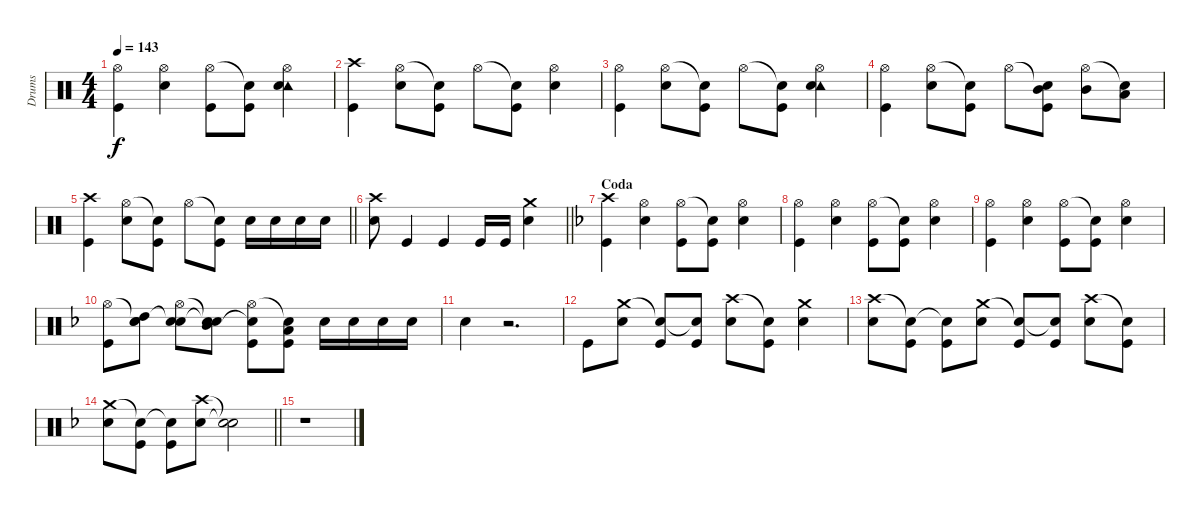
\track ("Drums" "Drums") {instrument percussion}
\staff {score}
\articulation defaults
\ts (4 4)
\tempo 143
\clef neutral
\ks c
("Hi-Hat (open)" "Kick (hit)").4{dy f} ("Hi-Hat (open)" "Electric Snare (hit)").4 ("Hi-Hat (open)" "Kick (hit)").8 ("Snare (hit)"{t} "Kick (hit)").8 ("Tambourine (hit)" "Hi-Hat (open)" "Electric Snare (hit)").4 |
("Crash high (hit)" "Kick (hit)").4 ("Hi-Hat (open)" "Electric Snare (hit)").8 ("Snare (hit)"{t} "Kick (hit)").8 "Hi-Hat (open)".8 ("Snare (hit)"{t} "Kick (hit)").8 ("Hi-Hat (open)" "Electric Snare (hit)").4 |
("Hi-Hat (open)" "Kick (hit)").4 ("Hi-Hat (open)" "Electric Snare (hit)").8 ("Snare (hit)"{t} "Kick (hit)").8 "Hi-Hat (open)".8 ("Snare (hit)"{t} "Kick (hit)").8 ("Tambourine (hit)" "Hi-Hat (open)" "Electric Snare (hit)").4 |
("Hi-Hat (open)" "Kick (hit)").4 ("Hi-Hat (open)" "Electric Snare (hit)").8 ("Snare (hit)"{t} "Kick (hit)").8 "Hi-Hat (open)".8 ("Snare (hit)"{t} "Mid Tom (hit)" "Kick (hit)").8 ("Hi-Hat (open)" "Mid Tom (hit)").8 ("Snare (hit)"{t} "Low Tom (hit)").8 |
\barLineRight lightlight
("Crash high (hit)" "Kick (hit)").4 ("Hi-Hat (open)" "Electric Snare (hit)").8 ("Snare (hit)"{t} "Kick (hit)").8 "Hi-Hat (open)".8 ("Snare (hit)"{t} "Kick (hit)").8 "Electric Snare (hit)".16 "Electric Snare (hit)".16 "Electric Snare (hit)".16 "Electric Snare (hit)".16 |
\barLineRight lightlight
("Crash high (hit)" "Electric Snare (hit)").8 "Kick (hit)".4 "Kick (hit)".4 "Kick (hit)".16 "Kick (hit)".16 ("Crash medium (hit)" "Electric Snare (hit)").4 |
\section ("" "Coda")
\ks f
("Crash high (hit)" "Kick (hit)").4 ("Hi-Hat (open)" "Electric Snare (hit)").4 ("Hi-Hat (open)" "Kick (hit)").8 ("Snare (hit)"{t} "Kick (hit)").8 ("Hi-Hat (open)" "Electric Snare (hit)").4 |
("Hi-Hat (open)" "Kick (hit)").4 ("Hi-Hat (open)" "Electric Snare (hit)").4 ("Hi-Hat (open)" "Kick (hit)").8 ("Snare (hit)"{t} "Kick (hit)").8 ("Hi-Hat (open)" "Electric Snare (hit)").4 |
("Hi-Hat (open)" "Kick (hit)").4 ("Hi-Hat (open)" "Electric Snare (hit)").4 ("Hi-Hat (open)" "Kick (hit)").8 ("Snare (hit)"{t} "Kick (hit)").8 ("Hi-Hat (open)" "Electric Snare (hit)").4 |
("Hi-Hat (open)" "Kick (hit)").8 ("Snare (hit)"{t} "High Tom (hit)" "Snare (hit)").8 ("Hi-Hat (open)" "Snare (hit)"{t} "Electric Snare (hit)").8 ("Snare (hit)"{t} "Mid Tom (hit)" "Snare (hit)"{t}).8 ("Hi-Hat (open)" "Snare (hit)"{t} "Kick (hit)").8 ("Snare (hit)"{t} "Low Tom (hit)" "Kick (hit)").8 "Electric Snare (hit)".16 "Electric Snare (hit)".16 "Electric Snare (hit)".16 "Electric Snare (hit)".16 |
"Electric Snare (hit)".4 r.2{d} |
"Kick (hit)".8 ("Crash medium (hit)" "Electric Snare (hit)").8 ("Snare (hit)"{t} "Kick (hit)").8 ("Snare (hit)"{t} "Kick (hit)").8 ("Crash high (hit)" "Electric Snare (hit)").8 ("Snare (hit)"{t} "Kick (hit)").8 ("Crash medium (hit)" "Electric Snare (hit)").4 |
("Crash high (hit)" "Electric Snare (hit)").8 ("Snare (hit)"{t} "Kick (hit)").8 ("Snare (hit)"{t} "Kick (hit)").8 ("Crash medium (hit)" "Electric Snare (hit)").8 ("Snare (hit)"{t} "Kick (hit)").8 ("Snare (hit)"{t} "Kick (hit)").8 ("Crash high (hit)" "Electric Snare (hit)").8 ("Snare (hit)"{t} "Kick (hit)").8 |
\barLineRight lightlight
("Crash medium (hit)" "Electric Snare (hit)").8 ("Snare (hit)"{t} "Kick (hit)").8 ("Snare (hit)"{t} "Kick (hit)").8 ("Crash high (hit)" "Electric Snare (hit)").8 ("Snare (hit)"{t} "Snare (hit)"{t}).2 |
r.1
